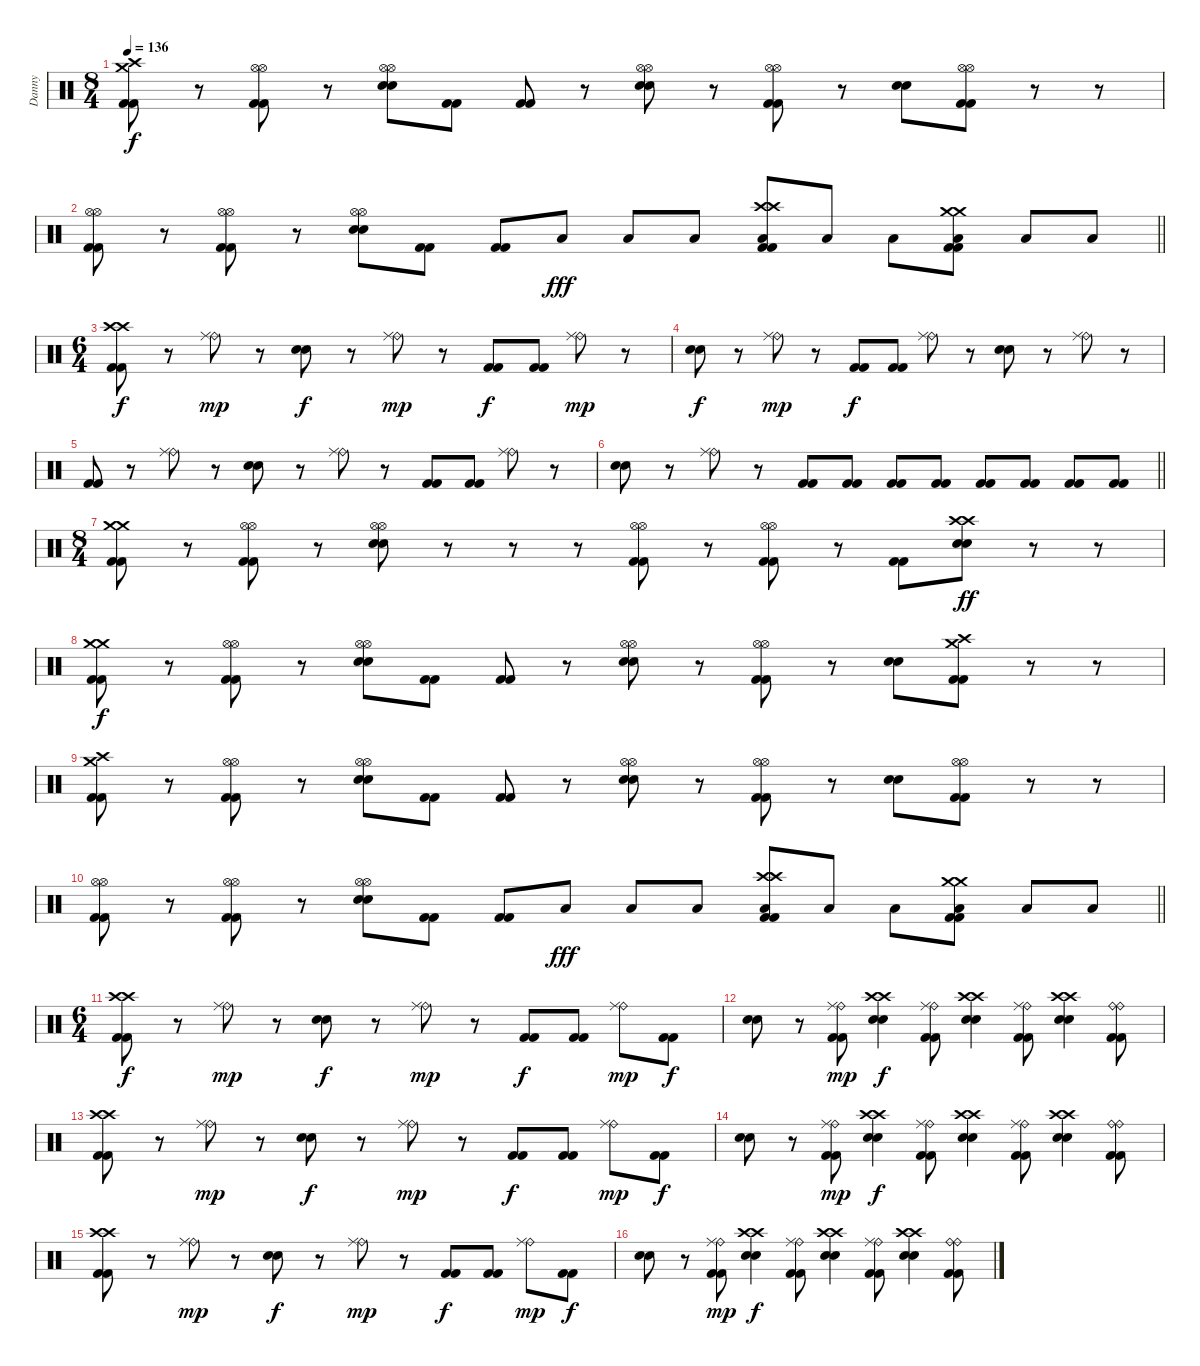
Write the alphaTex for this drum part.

\track ("Danny" "Danny") {instrument percussion}
\staff {score}
\articulation defaults
\ts (8 4)
\tempo 136
\clef neutral
\ks c
("Crash medium (hit)" "Kick (hit) 2" "Kick (hit) 2" "Crash high (hit)").8{dy f} r.8 ("Hi-Hat (open)" "Kick (hit) 2" "Kick (hit) 2" "Hi-Hat (open)").8 r.8 ("Hi-Hat (open)" "Snare (hit) 2" "Snare (hit) 2" "Hi-Hat (open)").8 ("Kick (hit) 2" "Kick (hit) 2").8 ("Kick (hit) 2" "Kick (hit) 2").8 r.8 ("Hi-Hat (open)" "Snare (hit) 2" "Snare (hit) 2" "Hi-Hat (open)").8 r.8 ("Hi-Hat (open)" "Kick (hit) 2" "Kick (hit) 2" "Hi-Hat (open)").8 r.8 ("Snare (hit) 2" "Snare (hit) 2").8 ("Hi-Hat (open)" "Kick (hit) 2" "Kick (hit) 2" "Hi-Hat (open)").8 r.8 r.8 |
\barLineRight lightlight
("Hi-Hat (open)" "Kick (hit) 2" "Kick (hit) 2" "Hi-Hat (open)").8 r.8 ("Hi-Hat (open)" "Kick (hit) 2" "Kick (hit) 2" "Hi-Hat (open)").8 r.8 ("Hi-Hat (open)" "Snare (hit) 2" "Snare (hit) 2" "Hi-Hat (open)").8 ("Kick (hit) 2" "Kick (hit) 2").8 ("Kick (hit) 2" "Kick (hit) 2").8 "Low Tom (hit)".8{dy fff} "Low Tom (hit)".8 "Low Tom (hit)".8 ("Crash high (hit)" "Kick (hit) 2" "Kick (hit) 2" "Crash high (hit)" "Low Tom (hit)").8 "Low Tom (hit)".8 "Low Tom (hit)".8 ("Crash medium (hit)" "Kick (hit) 2" "Kick (hit) 2" "Crash medium (hit)" "Low Tom (hit)").8 "Low Tom (hit)".8 "Low Tom (hit)".8 |
\ts (6 4)
\section ("" "")
("Crash high (hit)" "Kick (hit) 2" "Kick (hit) 2" "Crash high (hit)").8{dy f} r.8 ("Ride (bell)" "Ride (middle)").8{dy mp} r.8 ("Snare (hit) 2" "Snare (hit) 2").8{dy f} r.8 ("Ride (bell)" "Ride (middle)").8{dy mp} r.8 ("Kick (hit) 2" "Kick (hit) 2").8{dy f} ("Kick (hit) 2" "Kick (hit) 2").8 ("Ride (bell)" "Ride (middle)").8{dy mp} r.8 |
("Snare (hit) 2" "Snare (hit) 2").8{dy f} r.8 ("Ride (bell)" "Ride (middle)").8{dy mp} r.8 ("Kick (hit) 2" "Kick (hit) 2").8{dy f} ("Kick (hit) 2" "Kick (hit) 2").8 ("Ride (bell)" "Ride (middle)").8 r.8 ("Snare (hit) 2" "Snare (hit) 2").8 r.8 ("Ride (bell)" "Ride (middle)").8 r.8 |
("Kick (hit) 2" "Kick (hit) 2").8 r.8 ("Ride (bell)" "Ride (middle)").8 r.8 ("Snare (hit) 2" "Snare (hit) 2").8 r.8 ("Ride (bell)" "Ride (middle)").8 r.8 ("Kick (hit) 2" "Kick (hit) 2").8 ("Kick (hit) 2" "Kick (hit) 2").8 ("Ride (bell)" "Ride (middle)").8 r.8 |
\barLineRight lightlight
("Snare (hit) 2" "Snare (hit) 2").8 r.8 ("Ride (bell)" "Ride (middle)").8 r.8 ("Kick (hit) 2" "Kick (hit) 2").8 ("Kick (hit) 2" "Kick (hit) 2").8 ("Kick (hit) 2" "Kick (hit) 2").8 ("Kick (hit) 2" "Kick (hit) 2").8 ("Kick (hit) 2" "Kick (hit) 2").8 ("Kick (hit) 2" "Kick (hit) 2").8 ("Kick (hit) 2" "Kick (hit) 2").8 ("Kick (hit) 2" "Kick (hit) 2").8 |
\ts (8 4)
\section ("" "")
("Crash medium (hit)" "Kick (hit) 2" "Kick (hit) 2" "Crash medium (hit)").8 r.8 ("Hi-Hat (open)" "Kick (hit) 2" "Kick (hit) 2" "Hi-Hat (open)").8 r.8 ("Hi-Hat (open)" "Snare (hit) 2" "Snare (hit) 2" "Hi-Hat (open)").8 r.8 r.8 r.8 ("Hi-Hat (open)" "Kick (hit) 2" "Kick (hit) 2" "Hi-Hat (open)").8 r.8 ("Hi-Hat (open)" "Kick (hit) 2" "Kick (hit) 2" "Hi-Hat (open)").8 r.8 ("Kick (hit) 2" "Kick (hit) 2").8 ("Crash high (hit)" "Snare (hit) 2" "Snare (hit) 2" "Crash high (hit)").8{dy ff} r.8 r.8 |
("Crash medium (hit)" "Kick (hit) 2" "Kick (hit) 2" "Crash medium (hit)").8{dy f} r.8 ("Hi-Hat (open)" "Kick (hit) 2" "Kick (hit) 2" "Hi-Hat (open)").8 r.8 ("Hi-Hat (open)" "Snare (hit) 2" "Snare (hit) 2" "Hi-Hat (open)").8 ("Kick (hit) 2" "Kick (hit) 2").8 ("Kick (hit) 2" "Kick (hit) 2").8 r.8 ("Hi-Hat (open)" "Snare (hit) 2" "Snare (hit) 2" "Hi-Hat (open)").8 r.8 ("Hi-Hat (open)" "Kick (hit) 2" "Kick (hit) 2" "Hi-Hat (open)").8 r.8 ("Snare (hit) 2" "Snare (hit) 2").8 ("Crash medium (hit)" "Kick (hit) 2" "Kick (hit) 2" "Crash high (hit)").8 r.8 r.8 |
("Crash medium (hit)" "Kick (hit) 2" "Kick (hit) 2" "Crash high (hit)").8 r.8 ("Hi-Hat (open)" "Kick (hit) 2" "Kick (hit) 2" "Hi-Hat (open)").8 r.8 ("Hi-Hat (open)" "Snare (hit) 2" "Snare (hit) 2" "Hi-Hat (open)").8 ("Kick (hit) 2" "Kick (hit) 2").8 ("Kick (hit) 2" "Kick (hit) 2").8 r.8 ("Hi-Hat (open)" "Snare (hit) 2" "Snare (hit) 2" "Hi-Hat (open)").8 r.8 ("Hi-Hat (open)" "Kick (hit) 2" "Kick (hit) 2" "Hi-Hat (open)").8 r.8 ("Snare (hit) 2" "Snare (hit) 2").8 ("Hi-Hat (open)" "Kick (hit) 2" "Kick (hit) 2" "Hi-Hat (open)").8 r.8 r.8 |
\barLineRight lightlight
("Hi-Hat (open)" "Kick (hit) 2" "Kick (hit) 2" "Hi-Hat (open)").8 r.8 ("Hi-Hat (open)" "Kick (hit) 2" "Kick (hit) 2" "Hi-Hat (open)").8 r.8 ("Hi-Hat (open)" "Snare (hit) 2" "Snare (hit) 2" "Hi-Hat (open)").8 ("Kick (hit) 2" "Kick (hit) 2").8 ("Kick (hit) 2" "Kick (hit) 2").8 "Low Tom (hit)".8{dy fff} "Low Tom (hit)".8 "Low Tom (hit)".8 ("Crash high (hit)" "Kick (hit) 2" "Kick (hit) 2" "Crash high (hit)" "Low Tom (hit)").8 "Low Tom (hit)".8 "Low Tom (hit)".8 ("Crash medium (hit)" "Kick (hit) 2" "Kick (hit) 2" "Crash medium (hit)" "Low Tom (hit)").8 "Low Tom (hit)".8 "Low Tom (hit)".8 |
\ts (6 4)
\section ("" "")
("Crash high (hit)" "Kick (hit) 2" "Kick (hit) 2" "Crash high (hit)").8{dy f} r.8 ("Ride (bell)" "Ride (middle)").8{dy mp} r.8 ("Snare (hit) 2" "Snare (hit) 2").8{dy f} r.8 ("Ride (bell)" "Ride (middle)").8{dy mp} r.8 ("Kick (hit) 2" "Kick (hit) 2").8{dy f} ("Kick (hit) 2" "Kick (hit) 2").8 ("Ride (bell)" "Ride (middle)").8{dy mp} ("Kick (hit) 2" "Kick (hit) 2").8{dy f} |
("Snare (hit) 2" "Snare (hit) 2").8 r.8 ("Ride (bell)" "Kick (hit) 2" "Kick (hit) 2" "Ride (middle)").8{dy mp} ("Crash high (hit)" "Snare (hit) 2" "Snare (hit) 2" "Crash high (hit)").4{dy f} ("Ride (bell)" "Kick (hit) 2" "Kick (hit) 2" "Ride (middle)").8 ("Crash high (hit)" "Snare (hit) 2" "Snare (hit) 2" "Crash high (hit)").4 ("Ride (bell)" "Kick (hit) 2" "Kick (hit) 2" "Ride (middle)").8 ("Crash high (hit)" "Snare (hit) 2" "Snare (hit) 2" "Crash high (hit)").4 ("Ride (bell)" "Kick (hit) 2" "Kick (hit) 2" "Ride (bell)").8 |
("Crash high (hit)" "Kick (hit) 2" "Kick (hit) 2" "Crash high (hit)").8 r.8 ("Ride (bell)" "Ride (middle)").8{dy mp} r.8 ("Snare (hit) 2" "Snare (hit) 2").8{dy f} r.8 ("Ride (bell)" "Ride (middle)").8{dy mp} r.8 ("Kick (hit) 2" "Kick (hit) 2").8{dy f} ("Kick (hit) 2" "Kick (hit) 2").8 ("Ride (bell)" "Ride (middle)").8{dy mp} ("Kick (hit) 2" "Kick (hit) 2").8{dy f} |
("Snare (hit) 2" "Snare (hit) 2").8 r.8 ("Ride (bell)" "Kick (hit) 2" "Kick (hit) 2" "Ride (middle)").8{dy mp} ("Crash high (hit)" "Snare (hit) 2" "Snare (hit) 2" "Crash high (hit)").4{dy f} ("Ride (bell)" "Kick (hit) 2" "Kick (hit) 2" "Ride (middle)").8 ("Crash high (hit)" "Snare (hit) 2" "Snare (hit) 2" "Crash high (hit)").4 ("Ride (bell)" "Kick (hit) 2" "Kick (hit) 2" "Ride (middle)").8 ("Crash high (hit)" "Snare (hit) 2" "Snare (hit) 2" "Crash high (hit)").4 ("Ride (bell)" "Kick (hit) 2" "Kick (hit) 2" "Ride (bell)").8 |
("Crash high (hit)" "Kick (hit) 2" "Kick (hit) 2" "Crash high (hit)").8 r.8 ("Ride (bell)" "Ride (middle)").8{dy mp} r.8 ("Snare (hit) 2" "Snare (hit) 2").8{dy f} r.8 ("Ride (bell)" "Ride (middle)").8{dy mp} r.8 ("Kick (hit) 2" "Kick (hit) 2").8{dy f} ("Kick (hit) 2" "Kick (hit) 2").8 ("Ride (bell)" "Ride (middle)").8{dy mp} ("Kick (hit) 2" "Kick (hit) 2").8{dy f} |
("Snare (hit) 2" "Snare (hit) 2").8 r.8 ("Ride (bell)" "Kick (hit) 2" "Kick (hit) 2" "Ride (middle)").8{dy mp} ("Crash high (hit)" "Snare (hit) 2" "Snare (hit) 2" "Crash high (hit)").4{dy f} ("Ride (bell)" "Kick (hit) 2" "Kick (hit) 2" "Ride (middle)").8 ("Crash high (hit)" "Snare (hit) 2" "Snare (hit) 2" "Crash high (hit)").4 ("Ride (bell)" "Kick (hit) 2" "Kick (hit) 2" "Ride (middle)").8 ("Crash high (hit)" "Snare (hit) 2" "Snare (hit) 2" "Crash high (hit)").4 ("Ride (bell)" "Kick (hit) 2" "Kick (hit) 2" "Ride (bell)").8
